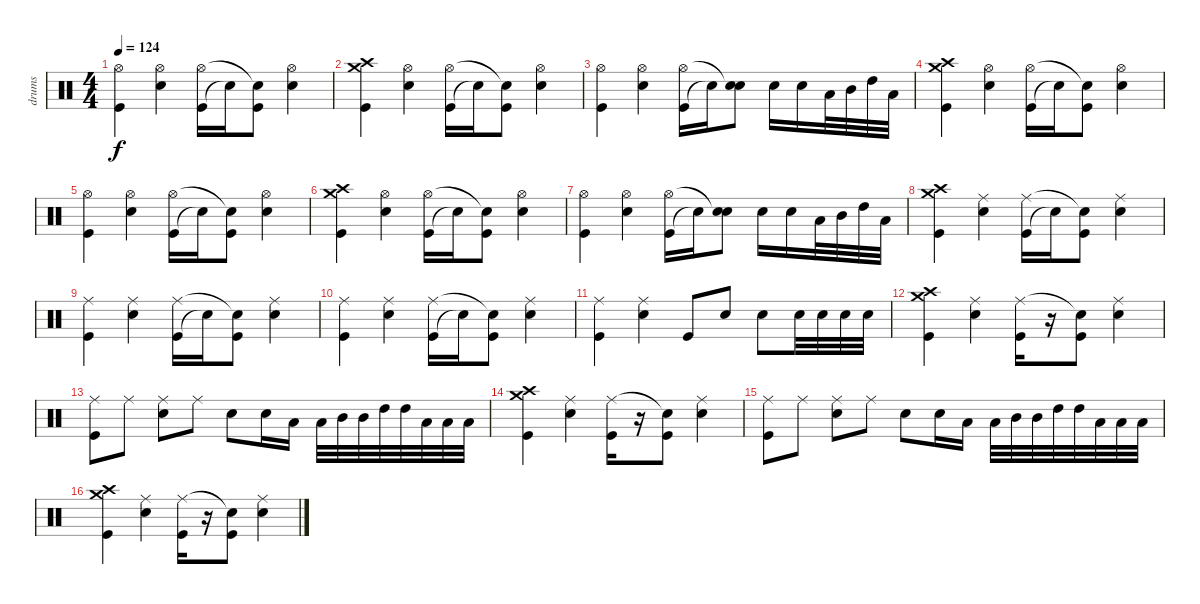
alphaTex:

\track ("drums" "drums") {instrument percussion}
\staff {score}
\articulation defaults
\ts (4 4)
\tempo 124
\clef neutral
\ks c
("Kick (hit)" "Hi-Hat (open)").4{dy f} ("Snare (hit) 2" "Hi-Hat (open)").4 ("Kick (hit)" "Hi-Hat (open)").16 "Snare (hit)"{t}.16 ("Kick (hit)" "Snare (hit)"{t}).8 ("Snare (hit) 2" "Hi-Hat (open)").4 |
("Kick (hit)" "Crash medium (hit)" "Crash high (hit)").4 ("Snare (hit) 2" "Hi-Hat (open)").4 ("Kick (hit)" "Hi-Hat (open)").16 "Snare (hit)"{t}.16 ("Kick (hit)" "Snare (hit)"{t}).8 ("Snare (hit) 2" "Hi-Hat (open)").4 |
("Kick (hit)" "Hi-Hat (open)").4 ("Snare (hit) 2" "Hi-Hat (open)").4 ("Kick (hit)" "Hi-Hat (open)").16 "Snare (hit)"{t}.16 ("Snare (hit) 2" "Snare (hit)"{t}).8 "Snare (hit) 2".16 "Snare (hit) 2".16 "Low Tom (hit)".32 "Mid Tom (hit)".32 "High Tom (hit)".32 "Low Floor Tom (hit)".32 |
("Kick (hit)" "Crash medium (hit)" "Crash high (hit)").4 ("Snare (hit) 2" "Hi-Hat (open)").4 ("Kick (hit)" "Hi-Hat (open)").16 "Snare (hit)"{t}.16 ("Kick (hit)" "Snare (hit)"{t}).8 ("Snare (hit) 2" "Hi-Hat (open)").4 |
("Kick (hit)" "Hi-Hat (open)").4 ("Snare (hit) 2" "Hi-Hat (open)").4 ("Kick (hit)" "Hi-Hat (open)").16 "Snare (hit)"{t}.16 ("Kick (hit)" "Snare (hit)"{t}).8 ("Snare (hit) 2" "Hi-Hat (open)").4 |
("Kick (hit)" "Crash medium (hit)" "Crash high (hit)").4 ("Snare (hit) 2" "Hi-Hat (open)").4 ("Kick (hit)" "Hi-Hat (open)").16 "Snare (hit)"{t}.16 ("Kick (hit)" "Snare (hit)"{t}).8 ("Snare (hit) 2" "Hi-Hat (open)").4 |
("Kick (hit)" "Hi-Hat (open)").4 ("Snare (hit) 2" "Hi-Hat (open)").4 ("Kick (hit)" "Hi-Hat (open)").16 "Snare (hit)"{t}.16 ("Snare (hit) 2" "Snare (hit)"{t}).8 "Snare (hit) 2".16 "Snare (hit) 2".16 "Low Tom (hit)".32 "Mid Tom (hit)".32 "High Tom (hit)".32 "Low Floor Tom (hit)".32 |
("Kick (hit)" "Crash medium (hit)" "Crash high (hit)").4 ("Snare (hit) 2" "Ride (middle)").4 ("Kick (hit)" "Ride (middle)").16 "Snare (hit)"{t}.16 ("Kick (hit)" "Snare (hit)"{t}).8 ("Snare (hit) 2" "Ride (middle)").4 |
("Kick (hit)" "Ride (middle)").4 ("Snare (hit) 2" "Ride (middle)").4 ("Kick (hit)" "Ride (middle)").16 "Snare (hit)"{t}.16 ("Kick (hit)" "Snare (hit)"{t}).8 ("Snare (hit) 2" "Ride (middle)").4 |
("Kick (hit)" "Ride (middle)").4 ("Snare (hit) 2" "Ride (middle)").4 ("Kick (hit)" "Ride (middle)").16 "Snare (hit)"{t}.16 ("Kick (hit)" "Snare (hit)"{t}).8 ("Snare (hit) 2" "Ride (middle)").4 |
("Kick (hit)" "Ride (middle)").4 ("Snare (hit) 2" "Ride (middle)").4 "Kick (hit)".8 "Snare (hit) 2".8 "Snare (hit) 2".8 "Snare (hit) 2".32 "Snare (hit) 2".32 "Snare (hit) 2".32 "Snare (hit) 2".32 |
("Kick (hit)" "Crash medium (hit)" "Crash high (hit)").4 ("Snare (hit) 2" "Ride (middle)").4 ("Kick (hit)" "Ride (middle)").16 r.16 ("Kick (hit)" "Snare (hit)"{t}).8 ("Snare (hit) 2" "Ride (middle)").4 |
("Kick (hit)" "Ride (middle)").8 "Ride (middle)".8 ("Snare (hit) 2" "Ride (middle)").8 "Ride (middle)".8 "Snare (hit) 2".8 "Snare (hit) 2".16 "Low Tom (hit)".16 "Low Tom (hit)".32 "Mid Tom (hit)".32 "Mid Tom (hit)".32 "High Tom (hit)".32 "High Tom (hit)".32 "Low Floor Tom (hit)".32 "Low Floor Tom (hit)".32 "Low Floor Tom (hit)".32 |
("Kick (hit)" "Crash medium (hit)" "Crash high (hit)").4 ("Snare (hit) 2" "Ride (middle)").4 ("Kick (hit)" "Ride (middle)").16 r.16 ("Kick (hit)" "Snare (hit)"{t}).8 ("Snare (hit) 2" "Ride (middle)").4 |
("Kick (hit)" "Ride (middle)").8 "Ride (middle)".8 ("Snare (hit) 2" "Ride (middle)").8 "Ride (middle)".8 "Snare (hit) 2".8 "Snare (hit) 2".16 "Low Tom (hit)".16 "Low Tom (hit)".32 "Mid Tom (hit)".32 "Mid Tom (hit)".32 "High Tom (hit)".32 "High Tom (hit)".32 "Low Floor Tom (hit)".32 "Low Floor Tom (hit)".32 "Low Floor Tom (hit)".32 |
("Kick (hit)" "Crash medium (hit)" "Crash high (hit)").4 ("Snare (hit) 2" "Ride (middle)").4 ("Kick (hit)" "Ride (middle)").16 r.16 ("Kick (hit)" "Snare (hit)"{t}).8 ("Snare (hit) 2" "Ride (middle)").4
